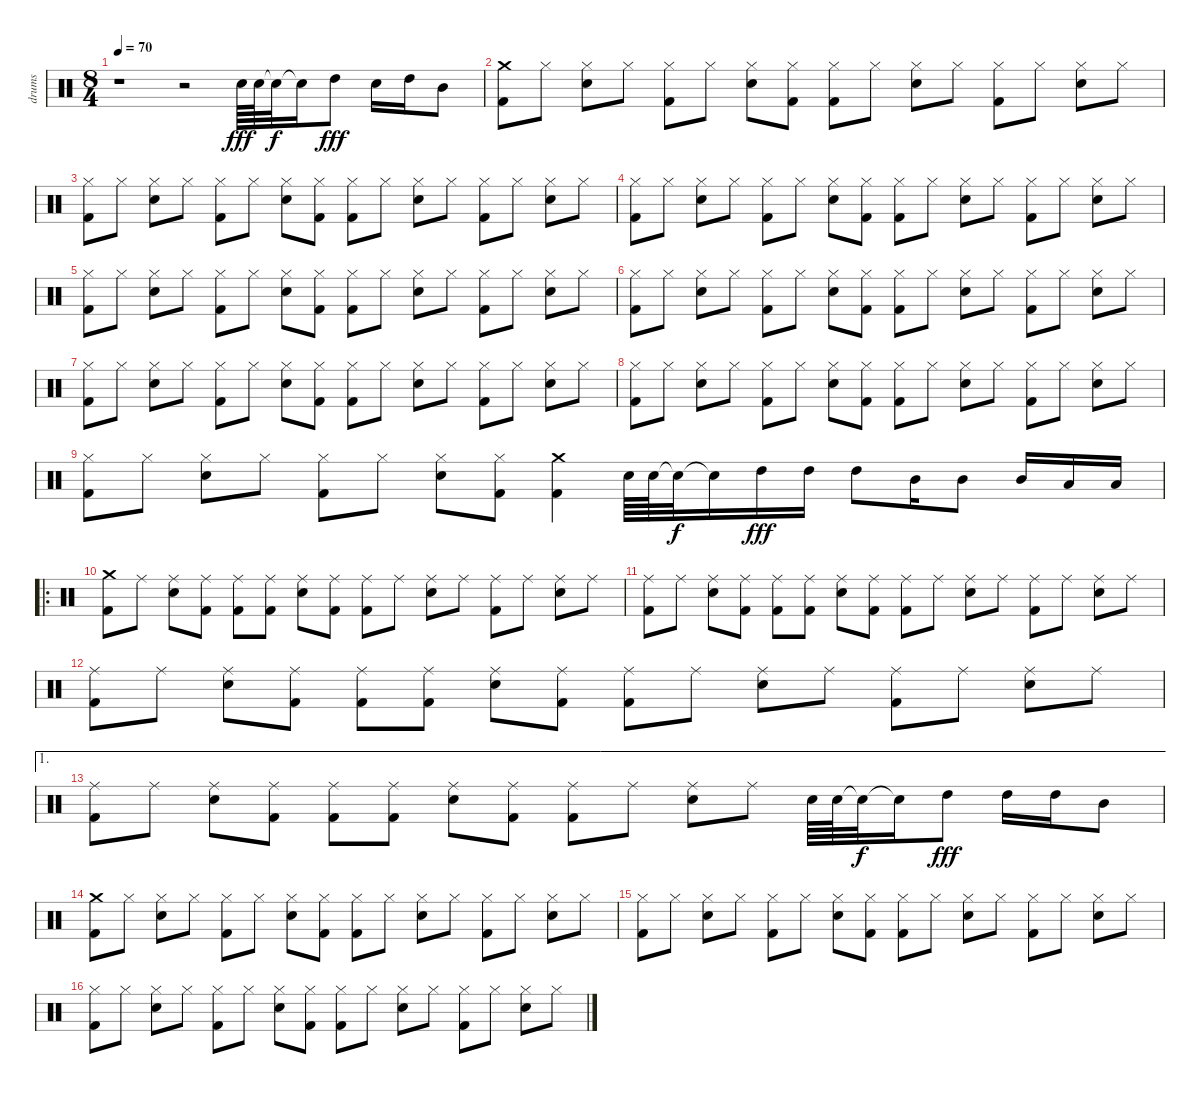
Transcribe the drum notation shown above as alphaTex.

\track ("drums" "drums") {instrument percussion}
\staff {score}
\articulation defaults
\ts (8 4)
\tempo 70
\clef neutral
\ks c
r.1{dy fff} r.2 "Snare (hit) 2".64 "Snare (hit) 2".64 "Snare (hit)"{t}.32{dy f} "Snare (hit)"{t}.16 "High Tom (hit)".8{dy fff} "Snare (hit) 2".16 "High Tom (hit)".16 "Mid Tom (hit)".8 |
("Crash medium (hit)" "Kick (hit) 2").8 "Hi-Hat (closed)".8 ("Hi-Hat (closed)" "Snare (hit) 2").8 "Hi-Hat (closed)".8 ("Hi-Hat (closed)" "Kick (hit) 2").8 "Hi-Hat (closed)".8 ("Hi-Hat (closed)" "Snare (hit) 2").8 ("Hi-Hat (closed)" "Kick (hit) 2").8 ("Hi-Hat (closed)" "Kick (hit) 2").8 "Hi-Hat (closed)".8 ("Hi-Hat (closed)" "Snare (hit) 2").8 "Hi-Hat (closed)".8 ("Hi-Hat (closed)" "Kick (hit) 2").8 "Hi-Hat (closed)".8 ("Hi-Hat (closed)" "Snare (hit) 2").8 "Hi-Hat (closed)".8 |
("Hi-Hat (closed)" "Kick (hit) 2").8 "Hi-Hat (closed)".8 ("Hi-Hat (closed)" "Snare (hit) 2").8 "Hi-Hat (closed)".8 ("Hi-Hat (closed)" "Kick (hit) 2").8 "Hi-Hat (closed)".8 ("Hi-Hat (closed)" "Snare (hit) 2").8 ("Hi-Hat (closed)" "Kick (hit) 2").8 ("Hi-Hat (closed)" "Kick (hit) 2").8 "Hi-Hat (closed)".8 ("Hi-Hat (closed)" "Snare (hit) 2").8 "Hi-Hat (closed)".8 ("Hi-Hat (closed)" "Kick (hit) 2").8 "Hi-Hat (closed)".8 ("Hi-Hat (closed)" "Snare (hit) 2").8 "Hi-Hat (closed)".8 |
("Hi-Hat (closed)" "Kick (hit) 2").8 "Hi-Hat (closed)".8 ("Hi-Hat (closed)" "Snare (hit) 2").8 "Hi-Hat (closed)".8 ("Hi-Hat (closed)" "Kick (hit) 2").8 "Hi-Hat (closed)".8 ("Hi-Hat (closed)" "Snare (hit) 2").8 ("Hi-Hat (closed)" "Kick (hit) 2").8 ("Hi-Hat (closed)" "Kick (hit) 2").8 "Hi-Hat (closed)".8 ("Hi-Hat (closed)" "Snare (hit) 2").8 "Hi-Hat (closed)".8 ("Hi-Hat (closed)" "Kick (hit) 2").8 "Hi-Hat (closed)".8 ("Hi-Hat (closed)" "Snare (hit) 2").8 "Hi-Hat (closed)".8 |
("Hi-Hat (closed)" "Kick (hit) 2").8 "Hi-Hat (closed)".8 ("Hi-Hat (closed)" "Snare (hit) 2").8 "Hi-Hat (closed)".8 ("Hi-Hat (closed)" "Kick (hit) 2").8 "Hi-Hat (closed)".8 ("Hi-Hat (closed)" "Snare (hit) 2").8 ("Hi-Hat (closed)" "Kick (hit) 2").8 ("Hi-Hat (closed)" "Kick (hit) 2").8 "Hi-Hat (closed)".8 ("Hi-Hat (closed)" "Snare (hit) 2").8 "Hi-Hat (closed)".8 ("Hi-Hat (closed)" "Kick (hit) 2").8 "Hi-Hat (closed)".8 ("Hi-Hat (closed)" "Snare (hit) 2").8 "Hi-Hat (closed)".8 |
("Hi-Hat (closed)" "Kick (hit) 2").8 "Hi-Hat (closed)".8 ("Hi-Hat (closed)" "Snare (hit) 2").8 "Hi-Hat (closed)".8 ("Hi-Hat (closed)" "Kick (hit) 2").8 "Hi-Hat (closed)".8 ("Hi-Hat (closed)" "Snare (hit) 2").8 ("Hi-Hat (closed)" "Kick (hit) 2").8 ("Hi-Hat (closed)" "Kick (hit) 2").8 "Hi-Hat (closed)".8 ("Hi-Hat (closed)" "Snare (hit) 2").8 "Hi-Hat (closed)".8 ("Hi-Hat (closed)" "Kick (hit) 2").8 "Hi-Hat (closed)".8 ("Hi-Hat (closed)" "Snare (hit) 2").8 "Hi-Hat (closed)".8 |
("Hi-Hat (closed)" "Kick (hit) 2").8 "Hi-Hat (closed)".8 ("Hi-Hat (closed)" "Snare (hit) 2").8 "Hi-Hat (closed)".8 ("Hi-Hat (closed)" "Kick (hit) 2").8 "Hi-Hat (closed)".8 ("Hi-Hat (closed)" "Snare (hit) 2").8 ("Hi-Hat (closed)" "Kick (hit) 2").8 ("Hi-Hat (closed)" "Kick (hit) 2").8 "Hi-Hat (closed)".8 ("Hi-Hat (closed)" "Snare (hit) 2").8 "Hi-Hat (closed)".8 ("Hi-Hat (closed)" "Kick (hit) 2").8 "Hi-Hat (closed)".8 ("Hi-Hat (closed)" "Snare (hit) 2").8 "Hi-Hat (closed)".8 |
("Hi-Hat (closed)" "Kick (hit) 2").8 "Hi-Hat (closed)".8 ("Hi-Hat (closed)" "Snare (hit) 2").8 "Hi-Hat (closed)".8 ("Hi-Hat (closed)" "Kick (hit) 2").8 "Hi-Hat (closed)".8 ("Hi-Hat (closed)" "Snare (hit) 2").8 ("Hi-Hat (closed)" "Kick (hit) 2").8 ("Hi-Hat (closed)" "Kick (hit) 2").8 "Hi-Hat (closed)".8 ("Hi-Hat (closed)" "Snare (hit) 2").8 "Hi-Hat (closed)".8 ("Hi-Hat (closed)" "Kick (hit) 2").8 "Hi-Hat (closed)".8 ("Hi-Hat (closed)" "Snare (hit) 2").8 "Hi-Hat (closed)".8 |
("Hi-Hat (closed)" "Kick (hit) 2").8 "Hi-Hat (closed)".8 ("Hi-Hat (closed)" "Snare (hit) 2").8 "Hi-Hat (closed)".8 ("Hi-Hat (closed)" "Kick (hit) 2").8 "Hi-Hat (closed)".8 ("Hi-Hat (closed)" "Snare (hit) 2").8 ("Hi-Hat (closed)" "Kick (hit) 2").8 ("Crash medium (hit)" "Kick (hit) 2").4 "Snare (hit) 2".64 "Snare (hit) 2".64 "Snare (hit)"{t}.32{dy f} "Snare (hit)"{t}.16 "High Tom (hit)".16{dy fff} "High Tom (hit)".16 "High Tom (hit)".8 "Mid Tom (hit)".16 "Mid Tom (hit)".8 "Mid Tom (hit)".16 "Low Tom (hit)".16 "Low Tom (hit)".16 |
\ro
("Crash medium (hit)" "Kick (hit) 2").8 "Ride (middle)".8 ("Ride (middle)" "Snare (hit) 2").8 ("Ride (middle)" "Kick (hit) 2").8 ("Ride (middle)" "Kick (hit) 2").8 ("Ride (middle)" "Kick (hit) 2").8 ("Ride (middle)" "Snare (hit) 2").8 ("Ride (middle)" "Kick (hit) 2").8 ("Ride (middle)" "Kick (hit) 2").8 "Ride (middle)".8 ("Ride (middle)" "Snare (hit) 2").8 "Ride (middle)".8 ("Ride (middle)" "Kick (hit) 2").8 "Ride (middle)".8 ("Ride (middle)" "Snare (hit) 2").8 "Ride (middle)".8 |
("Ride (middle)" "Kick (hit) 2").8 "Ride (middle)".8 ("Ride (middle)" "Snare (hit) 2").8 ("Ride (middle)" "Kick (hit) 2").8 ("Ride (middle)" "Kick (hit) 2").8 ("Ride (middle)" "Kick (hit) 2").8 ("Ride (middle)" "Snare (hit) 2").8 ("Ride (middle)" "Kick (hit) 2").8 ("Ride (middle)" "Kick (hit) 2").8 "Ride (middle)".8 ("Ride (middle)" "Snare (hit) 2").8 "Ride (middle)".8 ("Ride (middle)" "Kick (hit) 2").8 "Ride (middle)".8 ("Ride (middle)" "Snare (hit) 2").8 "Ride (middle)".8 |
("Ride (middle)" "Kick (hit) 2").8 "Ride (middle)".8 ("Ride (middle)" "Snare (hit) 2").8 ("Ride (middle)" "Kick (hit) 2").8 ("Ride (middle)" "Kick (hit) 2").8 ("Ride (middle)" "Kick (hit) 2").8 ("Ride (middle)" "Snare (hit) 2").8 ("Ride (middle)" "Kick (hit) 2").8 ("Ride (middle)" "Kick (hit) 2").8 "Ride (middle)".8 ("Ride (middle)" "Snare (hit) 2").8 "Ride (middle)".8 ("Ride (middle)" "Kick (hit) 2").8 "Ride (middle)".8 ("Ride (middle)" "Snare (hit) 2").8 "Ride (middle)".8 |
\ae 1
("Ride (middle)" "Kick (hit) 2").8 "Ride (middle)".8 ("Ride (middle)" "Snare (hit) 2").8 ("Ride (middle)" "Kick (hit) 2").8 ("Ride (middle)" "Kick (hit) 2").8 ("Ride (middle)" "Kick (hit) 2").8 ("Ride (middle)" "Snare (hit) 2").8 ("Ride (middle)" "Kick (hit) 2").8 ("Ride (middle)" "Kick (hit) 2").8 "Ride (middle)".8 ("Ride (middle)" "Snare (hit) 2").8 "Ride (middle)".8 "Snare (hit) 2".64 "Snare (hit) 2".64 "Snare (hit)"{t}.32{dy f} "Snare (hit)"{t}.16 "High Tom (hit)".8{dy fff} "High Tom (hit)".16 "High Tom (hit)".16 "Mid Tom (hit)".8 |
("Crash medium (hit)" "Kick (hit) 2").8 "Hi-Hat (closed)".8 ("Hi-Hat (closed)" "Snare (hit) 2").8 "Hi-Hat (closed)".8 ("Hi-Hat (closed)" "Kick (hit) 2").8 "Hi-Hat (closed)".8 ("Hi-Hat (closed)" "Snare (hit) 2").8 ("Hi-Hat (closed)" "Kick (hit) 2").8 ("Hi-Hat (closed)" "Kick (hit) 2").8 "Hi-Hat (closed)".8 ("Hi-Hat (closed)" "Snare (hit) 2").8 "Hi-Hat (closed)".8 ("Hi-Hat (closed)" "Kick (hit) 2").8 "Hi-Hat (closed)".8 ("Hi-Hat (closed)" "Snare (hit) 2").8 "Hi-Hat (closed)".8 |
("Hi-Hat (closed)" "Kick (hit) 2").8 "Hi-Hat (closed)".8 ("Hi-Hat (closed)" "Snare (hit) 2").8 "Hi-Hat (closed)".8 ("Hi-Hat (closed)" "Kick (hit) 2").8 "Hi-Hat (closed)".8 ("Hi-Hat (closed)" "Snare (hit) 2").8 ("Hi-Hat (closed)" "Kick (hit) 2").8 ("Hi-Hat (closed)" "Kick (hit) 2").8 "Hi-Hat (closed)".8 ("Hi-Hat (closed)" "Snare (hit) 2").8 "Hi-Hat (closed)".8 ("Hi-Hat (closed)" "Kick (hit) 2").8 "Hi-Hat (closed)".8 ("Hi-Hat (closed)" "Snare (hit) 2").8 "Hi-Hat (closed)".8 |
("Hi-Hat (closed)" "Kick (hit) 2").8 "Hi-Hat (closed)".8 ("Hi-Hat (closed)" "Snare (hit) 2").8 "Hi-Hat (closed)".8 ("Hi-Hat (closed)" "Kick (hit) 2").8 "Hi-Hat (closed)".8 ("Hi-Hat (closed)" "Snare (hit) 2").8 ("Hi-Hat (closed)" "Kick (hit) 2").8 ("Hi-Hat (closed)" "Kick (hit) 2").8 "Hi-Hat (closed)".8 ("Hi-Hat (closed)" "Snare (hit) 2").8 "Hi-Hat (closed)".8 ("Hi-Hat (closed)" "Kick (hit) 2").8 "Hi-Hat (closed)".8 ("Hi-Hat (closed)" "Snare (hit) 2").8 "Hi-Hat (closed)".8
